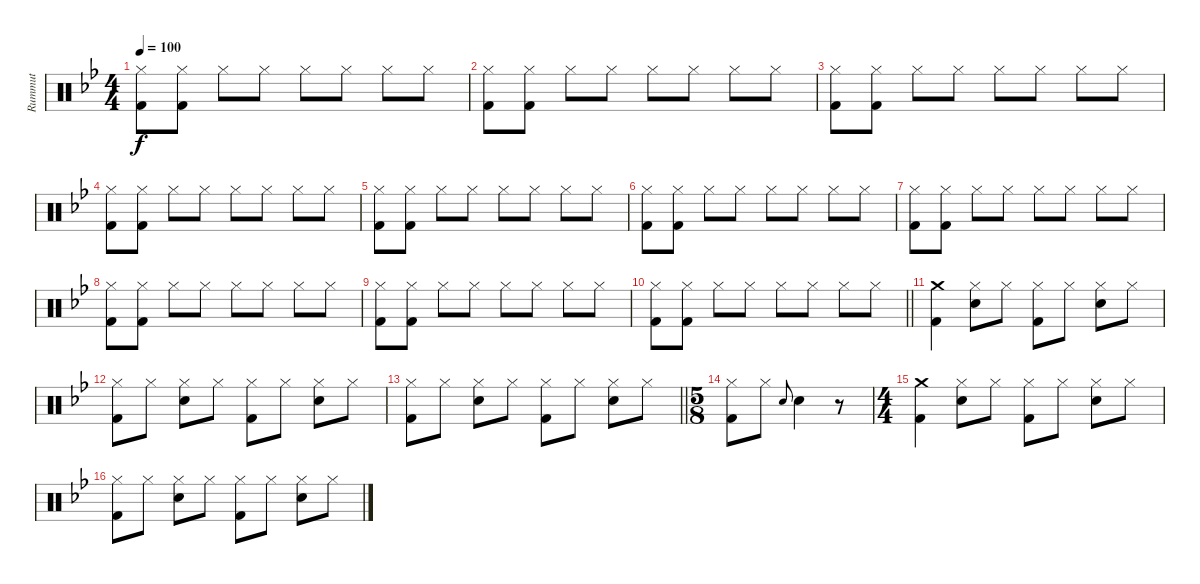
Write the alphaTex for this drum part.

\track ("Rummut" "Rummut") {instrument percussion}
\staff {score}
\articulation defaults
\ts (4 4)
\tempo 100
\clef neutral
\ks gminor
("Hi-Hat (closed)" "Kick (hit) 2").8{dy f} ("Hi-Hat (closed)" "Kick (hit) 2").8 "Hi-Hat (closed)".8 "Hi-Hat (closed)".8 "Hi-Hat (closed)".8 "Hi-Hat (closed)".8 "Hi-Hat (closed)".8 "Hi-Hat (closed)".8 |
("Hi-Hat (closed)" "Kick (hit) 2").8 ("Hi-Hat (closed)" "Kick (hit) 2").8 "Hi-Hat (closed)".8 "Hi-Hat (closed)".8 "Hi-Hat (closed)".8 "Hi-Hat (closed)".8 "Hi-Hat (closed)".8 "Hi-Hat (closed)".8 |
("Hi-Hat (closed)" "Kick (hit) 2").8 ("Hi-Hat (closed)" "Kick (hit) 2").8 "Hi-Hat (closed)".8 "Hi-Hat (closed)".8 "Hi-Hat (closed)".8 "Hi-Hat (closed)".8 "Hi-Hat (closed)".8 "Hi-Hat (closed)".8 |
("Hi-Hat (closed)" "Kick (hit) 2").8 ("Hi-Hat (closed)" "Kick (hit) 2").8 "Hi-Hat (closed)".8 "Hi-Hat (closed)".8 "Hi-Hat (closed)".8 "Hi-Hat (closed)".8 "Hi-Hat (closed)".8 "Hi-Hat (closed)".8 |
("Hi-Hat (closed)" "Kick (hit) 2").8 ("Hi-Hat (closed)" "Kick (hit) 2").8 "Hi-Hat (closed)".8 "Hi-Hat (closed)".8 "Hi-Hat (closed)".8 "Hi-Hat (closed)".8 "Hi-Hat (closed)".8 "Hi-Hat (closed)".8 |
("Hi-Hat (closed)" "Kick (hit) 2").8 ("Hi-Hat (closed)" "Kick (hit) 2").8 "Hi-Hat (closed)".8 "Hi-Hat (closed)".8 "Hi-Hat (closed)".8 "Hi-Hat (closed)".8 "Hi-Hat (closed)".8 "Hi-Hat (closed)".8 |
("Hi-Hat (closed)" "Kick (hit) 2").8 ("Hi-Hat (closed)" "Kick (hit) 2").8 "Hi-Hat (closed)".8 "Hi-Hat (closed)".8 "Hi-Hat (closed)".8 "Hi-Hat (closed)".8 "Hi-Hat (closed)".8 "Hi-Hat (closed)".8 |
("Hi-Hat (closed)" "Kick (hit) 2").8 ("Hi-Hat (closed)" "Kick (hit) 2").8 "Hi-Hat (closed)".8 "Hi-Hat (closed)".8 "Hi-Hat (closed)".8 "Hi-Hat (closed)".8 "Hi-Hat (closed)".8 "Hi-Hat (closed)".8 |
("Hi-Hat (closed)" "Kick (hit) 2").8 ("Hi-Hat (closed)" "Kick (hit) 2").8 "Hi-Hat (closed)".8 "Hi-Hat (closed)".8 "Hi-Hat (closed)".8 "Hi-Hat (closed)".8 "Hi-Hat (closed)".8 "Hi-Hat (closed)".8 |
\barLineRight lightlight
("Hi-Hat (closed)" "Kick (hit) 2").8 ("Hi-Hat (closed)" "Kick (hit) 2").8 "Hi-Hat (closed)".8 "Hi-Hat (closed)".8 "Hi-Hat (closed)".8 "Hi-Hat (closed)".8 "Hi-Hat (closed)".8 "Hi-Hat (closed)".8 |
("Crash medium (hit)" "Kick (hit) 2").4 ("Hi-Hat (closed)" "Snare (hit) 2").8 "Hi-Hat (closed)".8 ("Hi-Hat (closed)" "Kick (hit) 2").8 "Hi-Hat (closed)".8 ("Hi-Hat (closed)" "Snare (hit) 2").8 "Hi-Hat (closed)".8 |
("Hi-Hat (closed)" "Kick (hit) 2").8 "Hi-Hat (closed)".8 ("Hi-Hat (closed)" "Snare (hit) 2").8 "Hi-Hat (closed)".8 ("Hi-Hat (closed)" "Kick (hit) 2").8 "Hi-Hat (closed)".8 ("Hi-Hat (closed)" "Snare (hit) 2").8 "Hi-Hat (closed)".8 |
\barLineRight lightlight
("Hi-Hat (closed)" "Kick (hit) 2").8 "Hi-Hat (closed)".8 ("Hi-Hat (closed)" "Snare (hit) 2").8 "Hi-Hat (closed)".8 ("Hi-Hat (closed)" "Kick (hit) 2").8 "Hi-Hat (closed)".8 ("Hi-Hat (closed)" "Snare (hit) 2").8 "Hi-Hat (closed)".8 |
\ts (5 8)
("Hi-Hat (closed)" "Kick (hit) 2").8{beam merge} "Hi-Hat (closed)".8 "Snare (hit) 2".8{gr onbeat} "Snare (hit) 2".4 r.8 |
\ts (4 4)
("Crash medium (hit)" "Kick (hit) 2").4 ("Hi-Hat (closed)" "Snare (hit) 2").8 "Hi-Hat (closed)".8 ("Hi-Hat (closed)" "Kick (hit) 2").8 "Hi-Hat (closed)".8 ("Hi-Hat (closed)" "Snare (hit) 2").8 "Hi-Hat (closed)".8 |
("Hi-Hat (closed)" "Kick (hit) 2").8 "Hi-Hat (closed)".8 ("Hi-Hat (closed)" "Snare (hit) 2").8 "Hi-Hat (closed)".8 ("Hi-Hat (closed)" "Kick (hit) 2").8 "Hi-Hat (closed)".8 ("Hi-Hat (closed)" "Snare (hit) 2").8 "Hi-Hat (closed)".8
